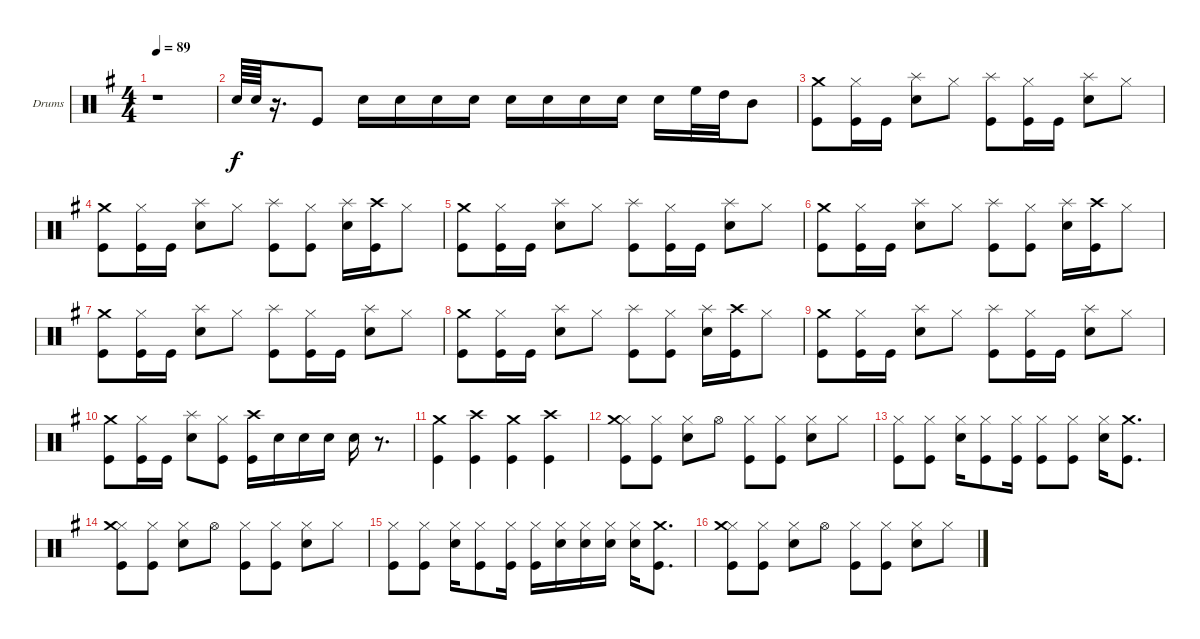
\bracketExtendMode groupsimilarinstruments
\firstSystemTrackNameOrientation horizontal
\otherSystemsTrackNameOrientation horizontal
\track ("Drumkit" "Drums") {instrument percussion}
\staff {score}
\articulation defaults
\ts (4 4)
\tempo 89
\clef neutral
\scale
0.137767
\ks eminor
r.1{dy f} |
\scale
0.862233 "Snare (hit) 2".64 "Snare (hit) 2".64 r.16{d} "Kick (hit)".8 "Snare (hit) 2".16 "Snare (hit) 2".16 "Snare (hit) 2".16 "Snare (hit) 2".16 "Snare (hit) 2".16 "Snare (hit) 2".16 "Snare (hit) 2".16 "Snare (hit) 2".16 "Snare (hit) 2".16 "High Floor Tom (hit)".32 "High Tom (hit)".32 "Mid Tom (hit)".8 |
\scale
0.5 ("Kick (hit)" "Crash medium (hit)").8 ("Kick (hit)" "Hi-Hat (closed)").16 "Kick (hit)".16 ("Snare (hit) 2" "Splash (hit)").8 "Hi-Hat (closed)".8 ("Kick (hit)" "Splash (hit)").8 ("Kick (hit)" "Hi-Hat (closed)").16 "Kick (hit)".16 ("Snare (hit) 2" "Splash (hit)").8 "Hi-Hat (closed)".8 |
\scale
0.5 ("Kick (hit)" "Crash medium (hit)").8 ("Kick (hit)" "Hi-Hat (closed)").16 "Kick (hit)".16 ("Snare (hit) 2" "Splash (hit)").8 "Hi-Hat (closed)".8 ("Kick (hit)" "Splash (hit)").8 ("Kick (hit)" "Hi-Hat (closed)").8 ("Snare (hit) 2" "Splash (hit)").16 ("Kick (hit)" "Crash high (hit)").16 "Hi-Hat (closed)".8 |
\scale
0.5 ("Kick (hit)" "Crash medium (hit)").8 ("Kick (hit)" "Hi-Hat (closed)").16 "Kick (hit)".16 ("Snare (hit) 2" "Splash (hit)").8 "Hi-Hat (closed)".8 ("Kick (hit)" "Splash (hit)").8 ("Kick (hit)" "Hi-Hat (closed)").16 "Kick (hit)".16 ("Snare (hit) 2" "Splash (hit)").8 "Hi-Hat (closed)".8 |
\scale
0.5 ("Kick (hit)" "Crash medium (hit)").8 ("Kick (hit)" "Hi-Hat (closed)").16 "Kick (hit)".16 ("Snare (hit) 2" "Splash (hit)").8 "Hi-Hat (closed)".8 ("Kick (hit)" "Splash (hit)").8 ("Kick (hit)" "Hi-Hat (closed)").8 ("Snare (hit) 2" "Splash (hit)").16 ("Kick (hit)" "Crash high (hit)").16 "Hi-Hat (closed)".8 |
\scale
0.5 ("Kick (hit)" "Crash medium (hit)").8 ("Kick (hit)" "Hi-Hat (closed)").16 "Kick (hit)".16 ("Snare (hit) 2" "Splash (hit)").8 "Hi-Hat (closed)".8 ("Kick (hit)" "Splash (hit)").8 ("Kick (hit)" "Hi-Hat (closed)").16 "Kick (hit)".16 ("Snare (hit) 2" "Splash (hit)").8 "Hi-Hat (closed)".8 |
\scale
0.5 ("Kick (hit)" "Crash medium (hit)").8 ("Kick (hit)" "Hi-Hat (closed)").16 "Kick (hit)".16 ("Snare (hit) 2" "Splash (hit)").8 "Hi-Hat (closed)".8 ("Kick (hit)" "Splash (hit)").8 ("Kick (hit)" "Hi-Hat (closed)").8 ("Snare (hit) 2" "Splash (hit)").16 ("Kick (hit)" "Crash high (hit)").16 "Hi-Hat (closed)".8 |
\scale
0.488665 ("Kick (hit)" "Crash medium (hit)").8 ("Kick (hit)" "Hi-Hat (closed)").16 "Kick (hit)".16 ("Snare (hit) 2" "Splash (hit)").8 "Hi-Hat (closed)".8 ("Kick (hit)" "Splash (hit)").8 ("Kick (hit)" "Hi-Hat (closed)").16 "Kick (hit)".16 ("Snare (hit) 2" "Splash (hit)").8 "Hi-Hat (closed)".8 |
\scale
0.511335 ("Kick (hit)" "Crash medium (hit)").8 ("Kick (hit)" "Hi-Hat (closed)").16 "Kick (hit)".16 ("Snare (hit) 2" "Splash (hit)").8 ("Kick (hit)" "Hi-Hat (closed)").8 ("Kick (hit)" "Crash high (hit)").16 "Snare (hit) 2".16 "Snare (hit) 2".16 "Snare (hit) 2".16 "Snare (hit) 2".16 r.8{d} |
\scale
0.40678 ("Kick (hit)" "Crash medium (hit)").4 ("Kick (hit)" "Crash high (hit)").4 ("Kick (hit)" "Crash medium (hit)").4 ("Kick (hit)" "Crash high (hit)").4 |
\scale
0.59322 ("Kick (hit)" "Hi-Hat (closed)" "Crash medium (hit)").8 ("Kick (hit)" "Hi-Hat (closed)").8 ("Snare (hit) 2" "Hi-Hat (closed)").8 "Hi-Hat (open)".8 ("Kick (hit)" "Hi-Hat (closed)").8 ("Kick (hit)" "Hi-Hat (closed)").8 ("Snare (hit) 2" "Hi-Hat (closed)").8 "Hi-Hat (closed)".8 |
\scale
0.513889 ("Kick (hit)" "Hi-Hat (closed)").8 ("Kick (hit)" "Hi-Hat (closed)").8 ("Snare (hit) 2" "Hi-Hat (closed)").16 ("Kick (hit)" "Hi-Hat (closed)").8 ("Kick (hit)" "Hi-Hat (closed)").16 ("Kick (hit)" "Hi-Hat (closed)").8 ("Kick (hit)" "Hi-Hat (closed)").8 ("Snare (hit) 2" "Hi-Hat (closed)").16 ("Kick (hit)" "Crash medium (hit)").8{d} |
\scale
0.486111 ("Kick (hit)" "Hi-Hat (closed)" "Crash medium (hit)").8 ("Kick (hit)" "Hi-Hat (closed)").8 ("Snare (hit) 2" "Hi-Hat (closed)").8 "Hi-Hat (open)".8 ("Kick (hit)" "Hi-Hat (closed)").8 ("Kick (hit)" "Hi-Hat (closed)").8 ("Snare (hit) 2" "Hi-Hat (closed)").8 "Hi-Hat (closed)".8 |
\scale
0.537037 ("Kick (hit)" "Hi-Hat (closed)").8 ("Kick (hit)" "Hi-Hat (closed)").8 ("Snare (hit) 2" "Hi-Hat (closed)").16 ("Kick (hit)" "Hi-Hat (closed)").8 ("Kick (hit)" "Hi-Hat (closed)").16 ("Kick (hit)" "Hi-Hat (closed)").16 ("Snare (hit) 2" "Hi-Hat (closed)").16 ("Snare (hit) 2" "Hi-Hat (closed)").16 ("Snare (hit) 2" "Hi-Hat (closed)").16 ("Snare (hit) 2" "Hi-Hat (closed)").16 ("Kick (hit)" "Crash medium (hit)").8{d} |
\scale
0.462963 ("Kick (hit)" "Hi-Hat (closed)" "Crash medium (hit)").8 ("Kick (hit)" "Hi-Hat (closed)").8 ("Snare (hit) 2" "Hi-Hat (closed)").8 "Hi-Hat (open)".8 ("Kick (hit)" "Hi-Hat (closed)").8 ("Kick (hit)" "Hi-Hat (closed)").8 ("Snare (hit) 2" "Hi-Hat (closed)").8 "Hi-Hat (closed)".8
